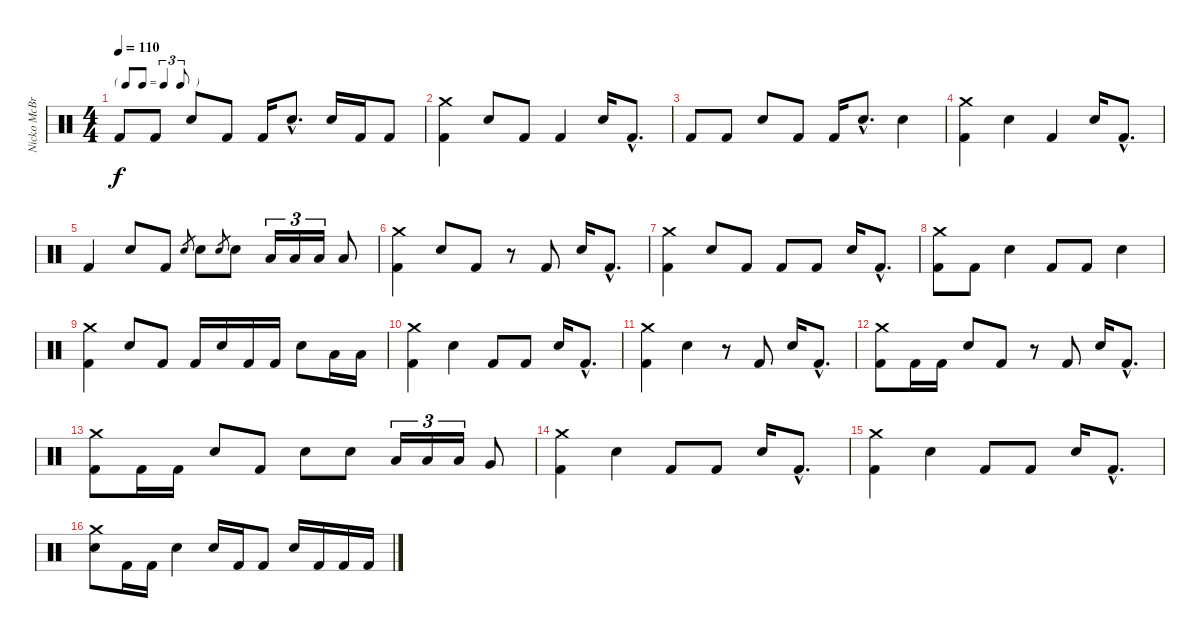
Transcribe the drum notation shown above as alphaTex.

\track ("Nicko McBrain" "Nicko McBr") {instrument percussion}
\staff {score}
\articulation defaults
\ts (4 4)
\tf triplet8th
\tempo 110
\clef neutral
\ks c "Kick (hit) 2".8{dy f} "Kick (hit) 2".8 "Electric Snare (hit)".8 "Kick (hit) 2".8 "Kick (hit) 2".16 "Electric Snare (hit)"{hac}.8{d} "Electric Snare (hit)".16 "Kick (hit) 2".16 "Kick (hit) 2".8
|
("Crash medium (hit)" "Kick (hit) 2").4 "Electric Snare (hit)".8 "Kick (hit) 2".8 "Kick (hit) 2".4 "Electric Snare (hit)".16 "Kick (hit) 2"{hac}.8{d} |
"Kick (hit) 2".8 "Kick (hit) 2".8 "Electric Snare (hit)".8 "Kick (hit) 2".8 "Kick (hit) 2".16 "Electric Snare (hit)"{hac}.8{d} "Electric Snare (hit)".4 |
("Crash medium (hit)" "Kick (hit) 2").4 "Electric Snare (hit)".4 "Kick (hit) 2".4 "Electric Snare (hit)".16 "Kick (hit) 2"{hac}.8{d} |
"Kick (hit) 2".4 "Electric Snare (hit)".8 "Kick (hit) 2".8 "Electric Snare (hit)".8{gr} "Electric Snare (hit)".8 "Electric Snare (hit)".8{gr} "Electric Snare (hit)".8 "Low Tom (hit)".16{tu (3 2)} "Low Tom (hit)".16{tu (3 2)} "Low Tom (hit)".16{tu (3 2)} "Low Tom (hit)".8 |
("Crash medium (hit)" "Kick (hit) 2").4 "Electric Snare (hit)".8 "Kick (hit) 2".8 r.8 "Kick (hit) 2".8 "Electric Snare (hit)".16 "Kick (hit) 2"{hac}.8{d} |
("Crash medium (hit)" "Kick (hit) 2").4 "Electric Snare (hit)".8 "Kick (hit) 2".8 "Kick (hit) 2".8 "Kick (hit) 2".8 "Electric Snare (hit)".16 "Kick (hit) 2"{hac}.8{d} |
("Crash medium (hit)" "Kick (hit) 2").8 "Kick (hit) 2".8 "Electric Snare (hit)".4 "Kick (hit) 2".8 "Kick (hit) 2".8 "Electric Snare (hit)".4 |
("Crash medium (hit)" "Kick (hit) 2").4 "Electric Snare (hit)".8 "Kick (hit) 2".8 "Kick (hit) 2".16 "Electric Snare (hit)".16 "Kick (hit) 2".16 "Kick (hit) 2".16 "Electric Snare (hit)".8 "Low Tom (hit)".16 "Low Tom (hit)".16 |
("Crash medium (hit)" "Kick (hit) 2").4 "Electric Snare (hit)".4 "Kick (hit) 2".8 "Kick (hit) 2".8 "Electric Snare (hit)".16 "Kick (hit) 2"{hac}.8{d} |
("Crash medium (hit)" "Kick (hit) 2").4 "Electric Snare (hit)".4 r.8 "Kick (hit) 2".8 "Electric Snare (hit)".16 "Kick (hit) 2"{hac}.8{d} |
("Crash medium (hit)" "Kick (hit) 2").8 "Kick (hit) 2".16 "Kick (hit) 2".16 "Electric Snare (hit)".8 "Kick (hit) 2".8 r.8 "Kick (hit) 2".8 "Electric Snare (hit)".16 "Kick (hit) 2"{hac}.8{d} |
("Crash medium (hit)" "Kick (hit) 2").8 "Kick (hit) 2".16 "Kick (hit) 2".16 "Electric Snare (hit)".8 "Kick (hit) 2".8 "Electric Snare (hit)".8 "Electric Snare (hit)".8 "Low Tom (hit)".16{tu (3 2)} "Low Tom (hit)".16{tu (3 2)} "Low Tom (hit)".16{tu (3 2)} "Very Low Tom (hit)".8 |
("Crash medium (hit)" "Kick (hit) 2").4 "Electric Snare (hit)".4 "Kick (hit) 2".8 "Kick (hit) 2".8 "Electric Snare (hit)".16 "Kick (hit) 2"{hac}.8{d} |
("Crash medium (hit)" "Kick (hit) 2").4 "Electric Snare (hit)".4 "Kick (hit) 2".8 "Kick (hit) 2".8 "Electric Snare (hit)".16 "Kick (hit) 2"{hac}.8{d} |
("Crash medium (hit)" "Electric Snare (hit)").8 "Kick (hit) 2".16 "Kick (hit) 2".16 "Electric Snare (hit)".4 "Electric Snare (hit)".16 "Kick (hit) 2".16 "Kick (hit) 2".8 "Electric Snare (hit)".16 "Kick (hit) 2".16 "Kick (hit) 2".16 "Kick (hit) 2".16
